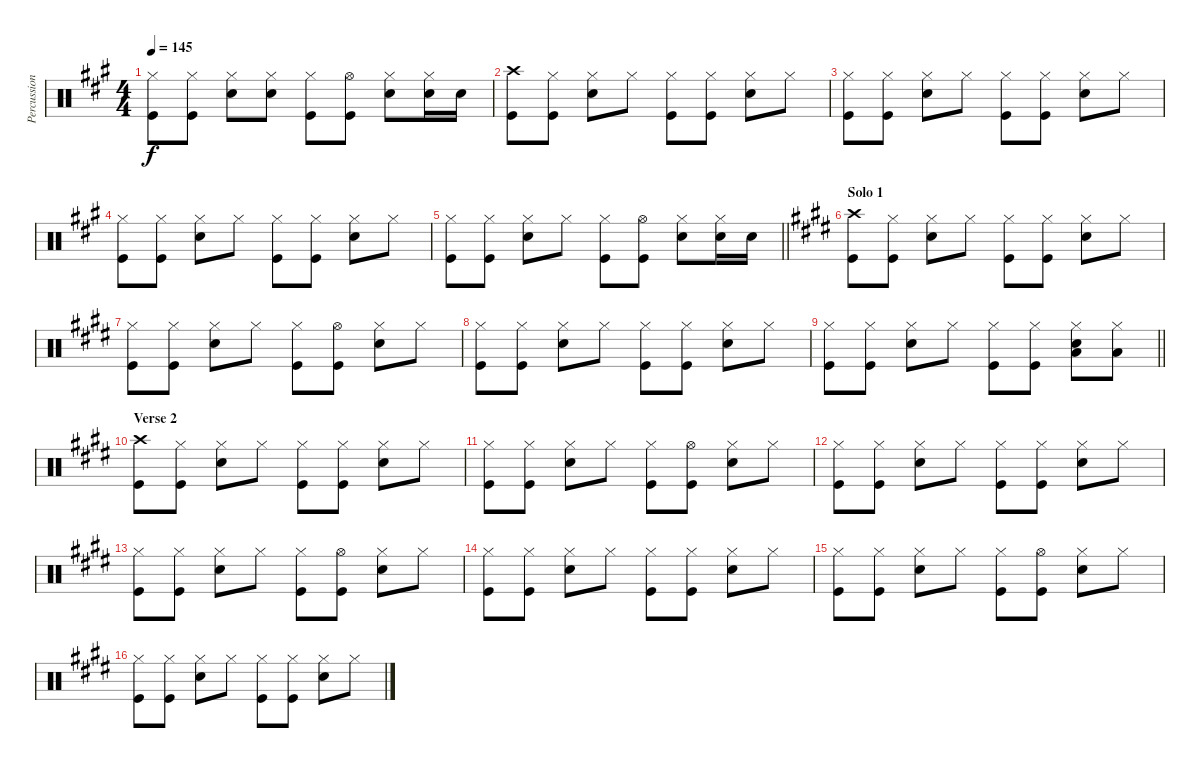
\track ("Percussion" "Percussion") {instrument percussion}
\staff {score}
\articulation defaults
\ts (4 4)
\tempo 145
\clef neutral
\ks a
("Hi-Hat (closed)" "Kick (hit)").8{dy f} ("Hi-Hat (closed)" "Kick (hit)").8 ("Hi-Hat (closed)" "Snare (hit) 2").8 ("Hi-Hat (closed)" "Snare (hit) 2").8 ("Hi-Hat (closed)" "Kick (hit)").8 ("Hi-Hat (open)" "Kick (hit)").8 ("Hi-Hat (closed)" "Snare (hit) 2").8 ("Hi-Hat (closed)" "Snare (hit) 2").16 "Snare (hit) 2".16 |
("Crash high (hit)" "Kick (hit)").8 ("Hi-Hat (closed)" "Kick (hit)").8 ("Hi-Hat (closed)" "Snare (hit) 2").8 "Hi-Hat (closed)".8 ("Hi-Hat (closed)" "Kick (hit)").8 ("Hi-Hat (closed)" "Kick (hit)").8 ("Hi-Hat (closed)" "Snare (hit) 2").8 "Hi-Hat (closed)".8 |
("Hi-Hat (closed)" "Kick (hit)").8 ("Hi-Hat (closed)" "Kick (hit)").8 ("Hi-Hat (closed)" "Snare (hit) 2").8 "Hi-Hat (closed)".8 ("Hi-Hat (closed)" "Kick (hit)").8 ("Hi-Hat (closed)" "Kick (hit)").8 ("Hi-Hat (closed)" "Snare (hit) 2").8 "Hi-Hat (closed)".8 |
("Hi-Hat (closed)" "Kick (hit)").8 ("Hi-Hat (closed)" "Kick (hit)").8 ("Hi-Hat (closed)" "Snare (hit) 2").8 "Hi-Hat (closed)".8 ("Hi-Hat (closed)" "Kick (hit)").8 ("Hi-Hat (closed)" "Kick (hit)").8 ("Hi-Hat (closed)" "Snare (hit) 2").8 "Hi-Hat (closed)".8 |
\barLineRight lightlight
("Hi-Hat (closed)" "Kick (hit)").8 ("Hi-Hat (closed)" "Kick (hit)").8 ("Hi-Hat (closed)" "Snare (hit) 2").8 "Hi-Hat (closed)".8 ("Hi-Hat (closed)" "Kick (hit)").8 ("Hi-Hat (open)" "Kick (hit)").8 ("Hi-Hat (closed)" "Snare (hit) 2").8 ("Hi-Hat (closed)" "Snare (hit) 2").16 "Snare (hit) 2".16 |
\section ("" "Solo 1")
\ks e
("Crash high (hit)" "Kick (hit)").8 ("Hi-Hat (closed)" "Kick (hit)").8 ("Hi-Hat (closed)" "Snare (hit) 2").8 "Hi-Hat (closed)".8 ("Hi-Hat (closed)" "Kick (hit)").8 ("Hi-Hat (closed)" "Kick (hit)").8 ("Hi-Hat (closed)" "Snare (hit) 2").8 "Hi-Hat (closed)".8 |
("Hi-Hat (closed)" "Kick (hit)").8 ("Hi-Hat (closed)" "Kick (hit)").8 ("Hi-Hat (closed)" "Snare (hit) 2").8 "Hi-Hat (closed)".8 ("Hi-Hat (closed)" "Kick (hit)").8 ("Hi-Hat (open)" "Kick (hit)").8 ("Hi-Hat (closed)" "Snare (hit) 2").8 "Hi-Hat (closed)".8 |
("Hi-Hat (closed)" "Kick (hit)").8 ("Hi-Hat (closed)" "Kick (hit)").8 ("Hi-Hat (closed)" "Snare (hit) 2").8 "Hi-Hat (closed)".8 ("Hi-Hat (closed)" "Kick (hit)").8 ("Hi-Hat (closed)" "Kick (hit)").8 ("Hi-Hat (closed)" "Snare (hit) 2").8 "Hi-Hat (closed)".8 |
\barLineRight lightlight
("Hi-Hat (closed)" "Kick (hit)").8 ("Hi-Hat (closed)" "Kick (hit)").8 ("Hi-Hat (closed)" "Snare (hit) 2").8 "Hi-Hat (closed)".8 ("Hi-Hat (closed)" "Kick (hit)").8 ("Hi-Hat (closed)" "Kick (hit)").8 ("Hi-Hat (closed)" "Low Tom (hit)" "Snare (hit) 2").8 ("Hi-Hat (closed)" "Low Floor Tom (hit)").8 |
\section ("" "Verse 2")
("Crash high (hit)" "Kick (hit)").8 ("Hi-Hat (closed)" "Kick (hit)").8 ("Hi-Hat (closed)" "Snare (hit) 2").8 "Hi-Hat (closed)".8 ("Hi-Hat (closed)" "Kick (hit)").8 ("Hi-Hat (closed)" "Kick (hit)").8 ("Hi-Hat (closed)" "Snare (hit) 2").8 "Hi-Hat (closed)".8 |
("Hi-Hat (closed)" "Kick (hit)").8 ("Hi-Hat (closed)" "Kick (hit)").8 ("Hi-Hat (closed)" "Snare (hit) 2").8 "Hi-Hat (closed)".8 ("Hi-Hat (closed)" "Kick (hit)").8 ("Hi-Hat (open)" "Kick (hit)").8 ("Hi-Hat (closed)" "Snare (hit) 2").8 "Hi-Hat (closed)".8 |
("Hi-Hat (closed)" "Kick (hit)").8 ("Hi-Hat (closed)" "Kick (hit)").8 ("Hi-Hat (closed)" "Snare (hit) 2").8 "Hi-Hat (closed)".8 ("Hi-Hat (closed)" "Kick (hit)").8 ("Hi-Hat (closed)" "Kick (hit)").8 ("Hi-Hat (closed)" "Snare (hit) 2").8 "Hi-Hat (closed)".8 |
("Hi-Hat (closed)" "Kick (hit)").8 ("Hi-Hat (closed)" "Kick (hit)").8 ("Hi-Hat (closed)" "Snare (hit) 2").8 "Hi-Hat (closed)".8 ("Hi-Hat (closed)" "Kick (hit)").8 ("Hi-Hat (open)" "Kick (hit)").8 ("Hi-Hat (closed)" "Snare (hit) 2").8 "Hi-Hat (closed)".8 |
("Hi-Hat (closed)" "Kick (hit)").8 ("Hi-Hat (closed)" "Kick (hit)").8 ("Hi-Hat (closed)" "Snare (hit) 2").8 "Hi-Hat (closed)".8 ("Hi-Hat (closed)" "Kick (hit)").8 ("Hi-Hat (closed)" "Kick (hit)").8 ("Hi-Hat (closed)" "Snare (hit) 2").8 "Hi-Hat (closed)".8 |
("Hi-Hat (closed)" "Kick (hit)").8 ("Hi-Hat (closed)" "Kick (hit)").8 ("Hi-Hat (closed)" "Snare (hit) 2").8 "Hi-Hat (closed)".8 ("Hi-Hat (closed)" "Kick (hit)").8 ("Hi-Hat (open)" "Kick (hit)").8 ("Hi-Hat (closed)" "Snare (hit) 2").8 "Hi-Hat (closed)".8 |
("Hi-Hat (closed)" "Kick (hit)").8 ("Hi-Hat (closed)" "Kick (hit)").8 ("Hi-Hat (closed)" "Snare (hit) 2").8 "Hi-Hat (closed)".8 ("Hi-Hat (closed)" "Kick (hit)").8 ("Hi-Hat (closed)" "Kick (hit)").8 ("Hi-Hat (closed)" "Snare (hit) 2").8 "Hi-Hat (closed)".8
